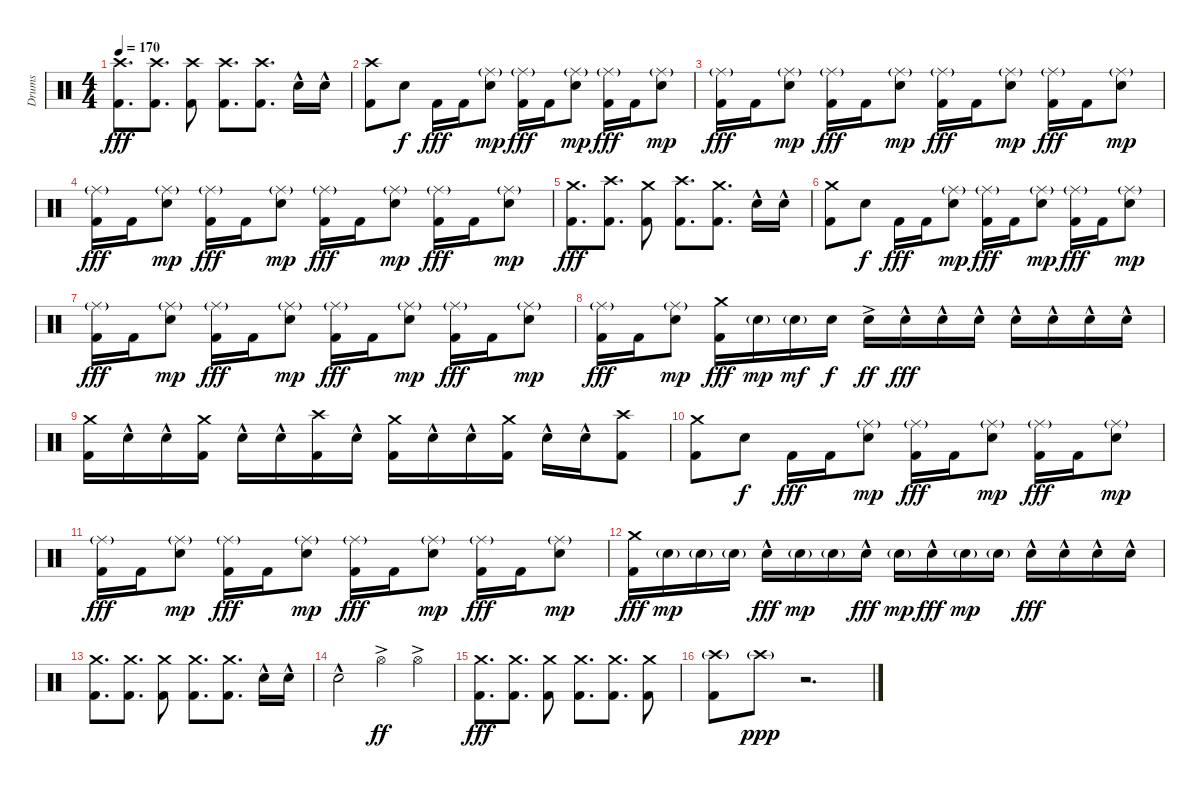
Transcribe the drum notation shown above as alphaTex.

\track ("Drums" "Drums") {instrument percussion}
\staff {score}
\articulation defaults
\ts (4 4)
\tempo 170
\clef neutral
\ks c
("Crash high (hit)" "Kick (hit) 2").8{d dy fff} ("Crash high (hit)" "Kick (hit) 2").8{d} ("Crash high (hit)" "Kick (hit) 2").8 ("Crash high (hit)" "Kick (hit) 2").8{d} ("Crash high (hit)" "Kick (hit) 2").8{d} "Snare (hit) 2"{hac}.16 "Snare (hit) 2"{hac}.16 |
("Crash high (hit)" "Kick (hit) 2").8 "Snare (hit) 2".8{dy f} "Kick (hit) 2".16{dy fff} "Kick (hit) 2".16 ("Ride (middle)"{g} "Snare (hit) 2").8{dy mp} ("Ride (middle)"{g} "Kick (hit) 2").16{dy fff} "Kick (hit) 2".16 ("Ride (middle)"{g} "Snare (hit) 2").8{dy mp} ("Ride (middle)"{g} "Kick (hit) 2").16{dy fff} "Kick (hit) 2".16 ("Ride (middle)"{g} "Snare (hit) 2").8{dy mp} |
("Ride (middle)"{g} "Kick (hit) 2").16{dy fff} "Kick (hit) 2".16 ("Ride (middle)"{g} "Snare (hit) 2").8{dy mp} ("Ride (middle)"{g} "Kick (hit) 2").16{dy fff} "Kick (hit) 2".16 ("Ride (middle)"{g} "Snare (hit) 2").8{dy mp} ("Ride (middle)"{g} "Kick (hit) 2").16{dy fff} "Kick (hit) 2".16 ("Ride (middle)"{g} "Snare (hit) 2").8{dy mp} ("Ride (middle)"{g} "Kick (hit) 2").16{dy fff} "Kick (hit) 2".16 ("Ride (middle)"{g} "Snare (hit) 2").8{dy mp} |
("Ride (middle)"{g} "Kick (hit) 2").16{dy fff} "Kick (hit) 2".16 ("Ride (middle)"{g} "Snare (hit) 2").8{dy mp} ("Ride (middle)"{g} "Kick (hit) 2").16{dy fff} "Kick (hit) 2".16 ("Ride (middle)"{g} "Snare (hit) 2").8{dy mp} ("Ride (middle)"{g} "Kick (hit) 2").16{dy fff} "Kick (hit) 2".16 ("Ride (middle)"{g} "Snare (hit) 2").8{dy mp} ("Ride (middle)"{g} "Kick (hit) 2").16{dy fff} "Kick (hit) 2".16 ("Ride (middle)"{g} "Snare (hit) 2").8{dy mp} |
("Crash medium (hit)" "Kick (hit) 2").8{d dy fff} ("Crash high (hit)" "Kick (hit) 2").8{d} ("Crash medium (hit)" "Kick (hit) 2").8 ("Crash high (hit)" "Kick (hit) 2").8{d} ("Crash medium (hit)" "Kick (hit) 2").8{d} "Snare (hit) 2"{hac}.16 "Snare (hit) 2"{hac}.16 |
("Crash medium (hit)" "Kick (hit) 2").8 "Snare (hit) 2".8{dy f} "Kick (hit) 2".16{dy fff} "Kick (hit) 2".16 ("Ride (middle)"{g} "Snare (hit) 2").8{dy mp} ("Ride (middle)"{g} "Kick (hit) 2").16{dy fff} "Kick (hit) 2".16 ("Ride (middle)"{g} "Snare (hit) 2").8{dy mp} ("Ride (middle)"{g} "Kick (hit) 2").16{dy fff} "Kick (hit) 2".16 ("Ride (middle)"{g} "Snare (hit) 2").8{dy mp} |
("Ride (middle)"{g} "Kick (hit) 2").16{dy fff} "Kick (hit) 2".16 ("Ride (middle)"{g} "Snare (hit) 2").8{dy mp} ("Ride (middle)"{g} "Kick (hit) 2").16{dy fff} "Kick (hit) 2".16 ("Ride (middle)"{g} "Snare (hit) 2").8{dy mp} ("Ride (middle)"{g} "Kick (hit) 2").16{dy fff} "Kick (hit) 2".16 ("Ride (middle)"{g} "Snare (hit) 2").8{dy mp} ("Ride (middle)"{g} "Kick (hit) 2").16{dy fff} "Kick (hit) 2".16 ("Ride (middle)"{g} "Snare (hit) 2").8{dy mp} |
("Ride (middle)"{g} "Kick (hit) 2").16{dy fff} "Kick (hit) 2".16 ("Ride (middle)"{g} "Snare (hit) 2").8{dy mp} ("Crash medium (hit)" "Kick (hit) 2").16{dy fff} "Snare (hit) 2"{g}.16{dy mp} "Snare (hit) 2"{g}.16{dy mf} "Snare (hit) 2".16{dy f} "Snare (hit) 2"{ac}.16{dy ff} "Snare (hit) 2"{hac}.16{dy fff} "Snare (hit) 2"{hac}.16 "Snare (hit) 2"{hac}.16 "Snare (hit) 2"{hac}.16 "Snare (hit) 2"{hac}.16 "Snare (hit) 2"{hac}.16 "Snare (hit) 2"{hac}.16 |
("Crash medium (hit)" "Kick (hit) 2").16 "Snare (hit) 2"{hac}.16 "Snare (hit) 2"{hac}.16 ("Crash medium (hit)" "Kick (hit) 2").16 "Snare (hit) 2"{hac}.16 "Snare (hit) 2"{hac}.16 ("Crash high (hit)" "Kick (hit) 2").16 "Snare (hit) 2"{hac}.16 ("Crash medium (hit)" "Kick (hit) 2").16 "Snare (hit) 2"{hac}.16 "Snare (hit) 2"{hac}.16 ("Crash medium (hit)" "Kick (hit) 2").16 "Snare (hit) 2"{hac}.16 "Snare (hit) 2"{hac}.16 ("Crash high (hit)" "Kick (hit) 2").8 |
("Crash medium (hit)" "Kick (hit) 2").8 "Snare (hit) 2".8{dy f} "Kick (hit) 2".16{dy fff} "Kick (hit) 2".16 ("Ride (middle)"{g} "Snare (hit) 2").8{dy mp} ("Ride (middle)"{g} "Kick (hit) 2").16{dy fff} "Kick (hit) 2".16 ("Ride (middle)"{g} "Snare (hit) 2").8{dy mp} ("Ride (middle)"{g} "Kick (hit) 2").16{dy fff} "Kick (hit) 2".16 ("Ride (middle)"{g} "Snare (hit) 2").8{dy mp} |
("Ride (middle)"{g} "Kick (hit) 2").16{dy fff} "Kick (hit) 2".16 ("Ride (middle)"{g} "Snare (hit) 2").8{dy mp} ("Ride (middle)"{g} "Kick (hit) 2").16{dy fff} "Kick (hit) 2".16 ("Ride (middle)"{g} "Snare (hit) 2").8{dy mp} ("Ride (middle)"{g} "Kick (hit) 2").16{dy fff} "Kick (hit) 2".16 ("Ride (middle)"{g} "Snare (hit) 2").8{dy mp} ("Ride (middle)"{g} "Kick (hit) 2").16{dy fff} "Kick (hit) 2".16 ("Ride (middle)"{g} "Snare (hit) 2").8{dy mp} |
("Crash medium (hit)" "Kick (hit) 2").16{dy fff} "Snare (hit) 2"{g}.16{dy mp} "Snare (hit) 2"{g}.16 "Snare (hit) 2"{g}.16 "Snare (hit) 2"{hac}.16{dy fff} "Snare (hit) 2"{g}.16{dy mp} "Snare (hit) 2"{g}.16 "Snare (hit) 2"{hac}.16{dy fff} "Snare (hit) 2"{g}.16{dy mp} "Snare (hit) 2"{hac}.16{dy fff} "Snare (hit) 2"{g}.16{dy mp} "Snare (hit) 2"{g}.16 "Snare (hit) 2"{hac}.16{dy fff} "Snare (hit) 2"{hac}.16 "Snare (hit) 2"{hac}.16 "Snare (hit) 2"{hac}.16 |
("Crash medium (hit)" "Kick (hit) 2").8{d} ("Crash medium (hit)" "Kick (hit) 2").8{d} ("Crash medium (hit)" "Kick (hit) 2").8 ("Crash medium (hit)" "Kick (hit) 2").8{d} ("Crash medium (hit)" "Kick (hit) 2").8{d} "Snare (hit) 2"{hac}.16 "Snare (hit) 2"{hac}.16 |
"Snare (hit) 2"{hac}.2 "Hi-Hat (open)"{ac}.4{dy ff} "Hi-Hat (open)"{ac}.4 |
("Crash medium (hit)" "Kick (hit) 2").8{d dy fff} ("Crash medium (hit)" "Kick (hit) 2").8{d} ("Crash medium (hit)" "Kick (hit) 2").8 ("Crash medium (hit)" "Kick (hit) 2").8{d} ("Crash medium (hit)" "Kick (hit) 2").8{d} ("Crash medium (hit)" "Kick (hit) 2").8 |
("Crash high (hit)"{g} "Kick (hit) 2").8 "Crash high (hit)"{g}.8{dy ppp volume 0} r.2{d}
